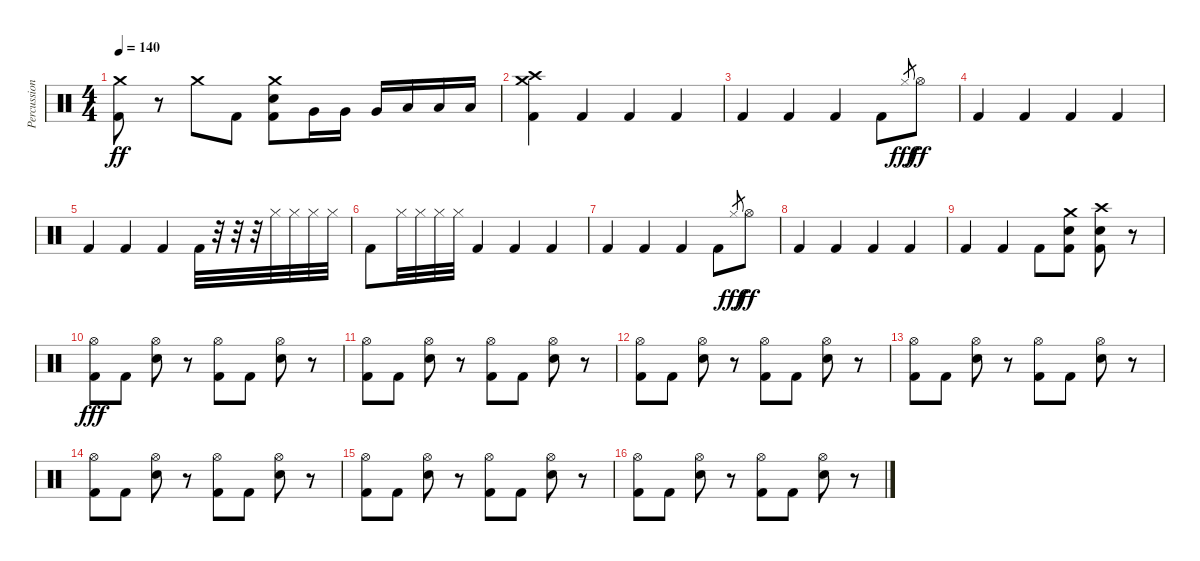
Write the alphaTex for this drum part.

\track ("Percussion" "Percussion") {instrument percussion}
\staff {score}
\articulation defaults
\ts (4 4)
\tempo 140
\clef neutral
\ks c
("Crash medium (hit)" "Kick (hit) 2").8{dy ff} r.8 "Crash medium (hit)".8 "Kick (hit) 2".8 ("Crash medium (hit)" "Electric Snare (hit)" "Kick (hit) 2").8 "Very Low Tom (hit)".16 "Very Low Tom (hit)".16 "Very Low Tom (hit)".16 "Low Floor Tom (hit)".16 "Low Floor Tom (hit)".16 "Low Floor Tom (hit)".16 |
("Crash medium (hit)" "Crash high (hit)" "Kick (hit) 2").4 "Kick (hit) 2".4 "Kick (hit) 2".4 "Kick (hit) 2".4 |
"Kick (hit) 2".4 "Kick (hit) 2".4 "Kick (hit) 2".4 "Kick (hit) 2".8 "Hi-Hat (closed)".8{gr dy fff} "Hi-Hat (open)".8{dy ff} |
"Kick (hit) 2".4 "Kick (hit) 2".4 "Kick (hit) 2".4 "Kick (hit) 2".4 |
"Kick (hit) 2".4 "Kick (hit) 2".4 "Kick (hit) 2".4 "Kick (hit) 2".32 r.32 r.32 r.32{balance 0} "Hi-Hat (closed)".32 "Hi-Hat (closed)".32 "Hi-Hat (closed)".32 "Hi-Hat (closed)".32 |
"Kick (hit) 2".8{balance 8} "Hi-Hat (closed)".32{balance 16} "Hi-Hat (closed)".32{balance 16} "Hi-Hat (closed)".32 "Hi-Hat (closed)".32 "Kick (hit) 2".4{balance 8} "Kick (hit) 2".4 "Kick (hit) 2".4 |
"Kick (hit) 2".4 "Kick (hit) 2".4 "Kick (hit) 2".4 "Kick (hit) 2".8 "Hi-Hat (closed)".8{gr dy fff} "Hi-Hat (open)".8{dy ff} |
"Kick (hit) 2".4 "Kick (hit) 2".4 "Kick (hit) 2".4 "Kick (hit) 2".4 |
"Kick (hit) 2".4 "Kick (hit) 2".4 "Kick (hit) 2".8 ("Crash medium (hit)" "Electric Snare (hit)" "Kick (hit) 2").8 ("Crash high (hit)" "Electric Snare (hit)" "Kick (hit) 2").8 r.8 |
("Hi-Hat (open)" "Kick (hit) 2").8{dy fff} "Kick (hit) 2".8 ("Hi-Hat (open)" "Electric Snare (hit)").8 r.8 ("Hi-Hat (open)" "Kick (hit) 2").8 "Kick (hit) 2".8 ("Hi-Hat (open)" "Electric Snare (hit)").8 r.8 |
("Hi-Hat (open)" "Kick (hit) 2").8 "Kick (hit) 2".8 ("Hi-Hat (open)" "Electric Snare (hit)").8 r.8 ("Hi-Hat (open)" "Kick (hit) 2").8 "Kick (hit) 2".8 ("Hi-Hat (open)" "Electric Snare (hit)").8 r.8 |
("Hi-Hat (open)" "Kick (hit) 2").8 "Kick (hit) 2".8 ("Hi-Hat (open)" "Electric Snare (hit)").8 r.8 ("Hi-Hat (open)" "Kick (hit) 2").8 "Kick (hit) 2".8 ("Hi-Hat (open)" "Electric Snare (hit)").8 r.8 |
("Hi-Hat (open)" "Kick (hit) 2").8 "Kick (hit) 2".8 ("Hi-Hat (open)" "Electric Snare (hit)").8 r.8 ("Hi-Hat (open)" "Kick (hit) 2").8 "Kick (hit) 2".8 ("Hi-Hat (open)" "Electric Snare (hit)").8 r.8 |
("Hi-Hat (open)" "Kick (hit) 2").8 "Kick (hit) 2".8 ("Hi-Hat (open)" "Electric Snare (hit)").8 r.8 ("Hi-Hat (open)" "Kick (hit) 2").8 "Kick (hit) 2".8 ("Hi-Hat (open)" "Electric Snare (hit)").8 r.8 |
("Hi-Hat (open)" "Kick (hit) 2").8 "Kick (hit) 2".8 ("Hi-Hat (open)" "Electric Snare (hit)").8 r.8 ("Hi-Hat (open)" "Kick (hit) 2").8 "Kick (hit) 2".8 ("Hi-Hat (open)" "Electric Snare (hit)").8 r.8 |
("Hi-Hat (open)" "Kick (hit) 2").8 "Kick (hit) 2".8 ("Hi-Hat (open)" "Electric Snare (hit)").8 r.8 ("Hi-Hat (open)" "Kick (hit) 2").8 "Kick (hit) 2".8 ("Hi-Hat (open)" "Electric Snare (hit)").8 r.8
